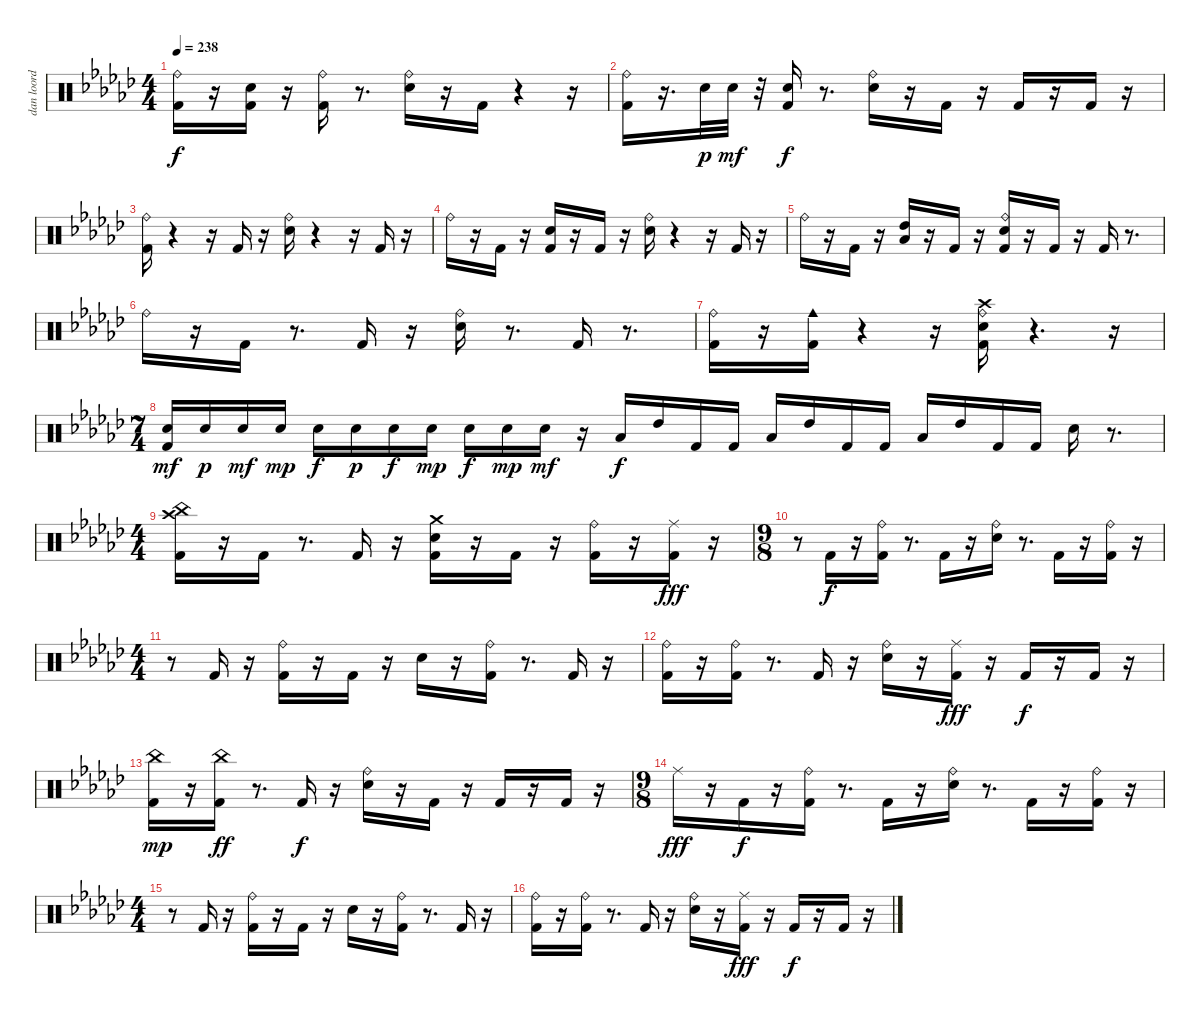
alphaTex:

\track ("dan loord foord" "dan loord ") {instrument percussion}
\staff {score}
\articulation defaults
\ts (4 4)
\tempo 238
\clef neutral
\ks gb
("Kick (hit) 2" "Ride (bell)").16{dy f} r.16 ("Kick (hit) 2" "Snare (hit) 2").16 r.16 ("Kick (hit) 2" "Ride (bell)").16 r.8{d} ("Snare (hit) 2" "Ride (bell)").16 r.16 "Kick (hit) 2".16 r.4 r.16 |
("Kick (hit) 2" "Ride (bell)").16 r.16{d} "Snare (hit) 2".32{dy p} "Snare (hit) 2".32{dy mf} r.32 ("Kick (hit) 2" "Snare (hit) 2").16{dy f} r.8{d} ("Snare (hit) 2" "Ride (bell)").16 r.16 "Kick (hit) 2".16 r.16 "Kick (hit) 2".16 r.16 "Kick (hit) 2".16 r.16 |
("Kick (hit) 2" "Ride (bell)").16 r.4 r.16 "Kick (hit) 2".16 r.16 ("Snare (hit) 2" "Ride (bell)").16 r.4 r.16 "Kick (hit) 2".16 r.16 |
"Ride (bell)".16 r.16 "Kick (hit) 2".16 r.16 ("Kick (hit) 2" "Snare (hit) 2").16 r.16 "Kick (hit) 2".16 r.16 ("Snare (hit) 2" "Ride (bell)").16 r.4 r.16 "Kick (hit) 2".16 r.16 |
"Ride (bell)".16 r.16 "Kick (hit) 2".16 r.16 ("Low Floor Tom (hit)" "High Tom (hit)").16 r.16 "Kick (hit) 2".16 r.16 ("Kick (hit) 2" "Snare (hit) 2" "Ride (bell)").16 r.16 "Kick (hit) 2".16 r.16 "Kick (hit) 2".16 r.8{d} |
"Ride (bell)".16 r.16 "Kick (hit) 2".16 r.8{d} "Kick (hit) 2".16 r.16 ("Snare (hit) 2" "Ride (bell)").16 r.8{d} "Kick (hit) 2".16 r.8{d} |
("Kick (hit) 2" "Ride (bell)").16 r.16 ("Kick (hit) 2" "Cowbell medium (hit)").16 r.4 r.16 ("Kick (hit) 2" "Snare (hit) 2" "Crash high (hit)" "Ride (bell)").16 r.4{d} r.16 |
\ts (7 4)
("Kick (hit) 2" "Snare (hit) 2").16{dy mf} "Snare (hit) 2".16{dy p} "Snare (hit) 2".16{dy mf} "Snare (hit) 2".16{dy mp} "Snare (hit) 2".16{dy f} "Snare (hit) 2".16{dy p} "Snare (hit) 2".16{dy f} "Snare (hit) 2".16{dy mp} "Snare (hit) 2".16{dy f} "Snare (hit) 2".16{dy mp} "Snare (hit) 2".16{dy mf} r.16 "Low Floor Tom (hit)".16{dy f} "High Tom (hit)".16 "Kick (hit) 2".16 "Kick (hit) 2".16 "Low Floor Tom (hit)".16 "High Tom (hit)".16 "Kick (hit) 2".16 "Kick (hit) 2".16 "Low Floor Tom (hit)".16 "High Tom (hit)".16 "Kick (hit) 2".16 "Kick (hit) 2".16 "Snare (hit) 2".16 r.8{d} |
\ts (4 4)
("Kick (hit) 2" "Crash high (hit)" "China (hit)").16 r.16 "Kick (hit) 2".16 r.8{d} "Kick (hit) 2".16 r.16 ("Kick (hit) 2" "Snare (hit) 2" "Crash medium (hit)").16 r.16 "Kick (hit) 2".16 r.16 ("Kick (hit) 2" "Ride (bell)").16 r.16 ("Kick (hit) 2" "Ride (middle)").16{dy fff} r.16 |
\ts (9 8)
r.8 "Kick (hit) 2".16{dy f} r.16 ("Kick (hit) 2" "Ride (bell)").16 r.8{d} "Kick (hit) 2".16 r.16 ("Snare (hit) 2" "Ride (bell)").16 r.8{d} "Kick (hit) 2".16 r.16 ("Kick (hit) 2" "Ride (bell)").16 r.16 |
\ts (4 4)
r.8 "Kick (hit) 2".16 r.16 ("Kick (hit) 2" "Ride (bell)").16 r.16 "Kick (hit) 2".16 r.16 "Snare (hit) 2".16 r.16 ("Kick (hit) 2" "Ride (bell)").16 r.8{d} "Kick (hit) 2".16 r.16 |
("Kick (hit) 2" "Ride (bell)").16 r.16 ("Kick (hit) 2" "Ride (bell)").16 r.8{d} "Kick (hit) 2".16 r.16 ("Snare (hit) 2" "Ride (bell)").16 r.16 ("Kick (hit) 2" "Ride (middle)").16{dy fff} r.16 "Kick (hit) 2".16{dy f} r.16 "Kick (hit) 2".16 r.16 |
("Kick (hit) 2" "China (hit)").16{dy mp} r.16 ("Kick (hit) 2" "China (hit)").16{dy ff} r.8{d} "Kick (hit) 2".16{dy f} r.16 ("Snare (hit) 2" "Ride (bell)").16 r.16 "Kick (hit) 2".16 r.16 "Kick (hit) 2".16 r.16 "Kick (hit) 2".16 r.16 |
\ts (9 8)
"Ride (middle)".16{dy fff} r.16 "Kick (hit) 2".16{dy f} r.16 ("Kick (hit) 2" "Ride (bell)").16 r.8{d} "Kick (hit) 2".16 r.16 ("Snare (hit) 2" "Ride (bell)").16 r.8{d} "Kick (hit) 2".16 r.16 ("Kick (hit) 2" "Ride (bell)").16 r.16 |
\ts (4 4)
r.8 "Kick (hit) 2".16 r.16 ("Kick (hit) 2" "Ride (bell)").16 r.16 "Kick (hit) 2".16 r.16 "Snare (hit) 2".16 r.16 ("Kick (hit) 2" "Ride (bell)").16 r.8{d} "Kick (hit) 2".16 r.16 |
("Kick (hit) 2" "Ride (bell)").16 r.16 ("Kick (hit) 2" "Ride (bell)").16 r.8{d} "Kick (hit) 2".16 r.16 ("Snare (hit) 2" "Ride (bell)").16 r.16 ("Kick (hit) 2" "Ride (middle)").16{dy fff} r.16 "Kick (hit) 2".16{dy f} r.16 "Kick (hit) 2".16 r.16
